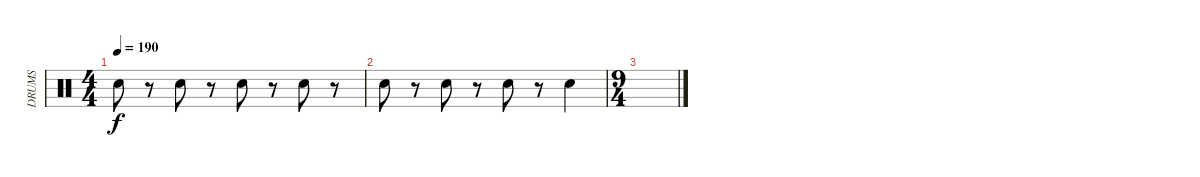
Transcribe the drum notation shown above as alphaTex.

\track ("DRUMS" "DRUMS") {instrument percussion}
\staff {score}
\articulation defaults
\ts (4 4)
\tempo 190
\clef neutral
\ks c "Electric Snare (hit)".8{dy f}
r.8 "Electric Snare (hit)".8 r.8 "Electric Snare (hit)".8 r.8 "Electric Snare (hit)".8 r.8 |
"Electric Snare (hit)".8 r.8 "Electric Snare (hit)".8 r.8 "Electric Snare (hit)".8 r.8 "Electric Snare (hit)".4 |
\ts (9 4)
